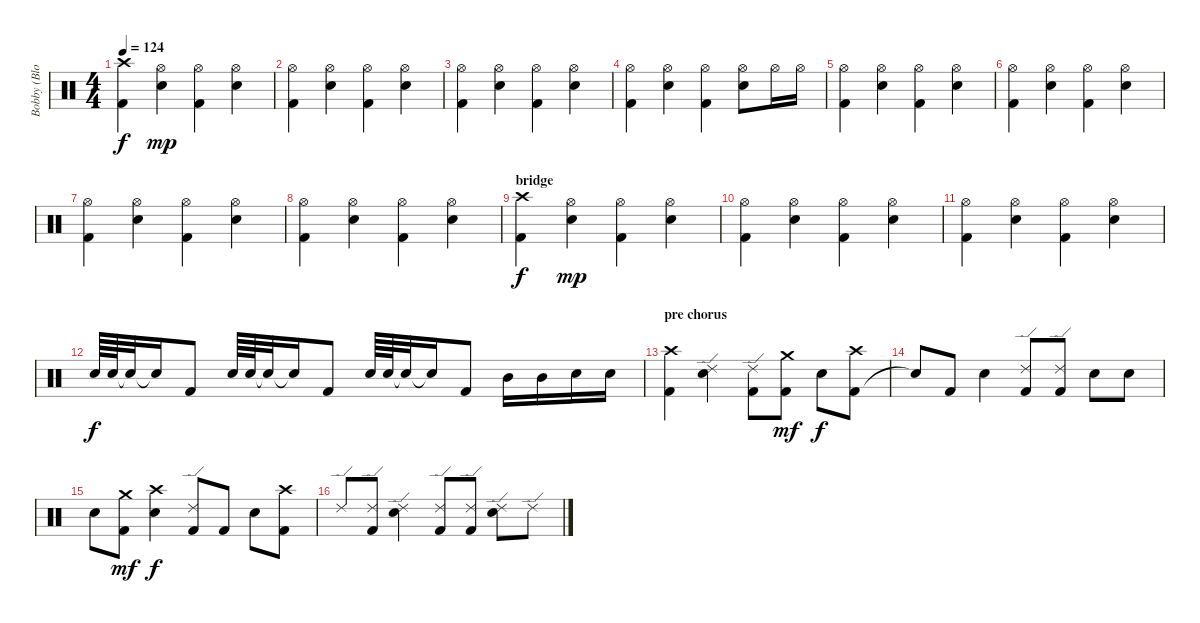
\track ("Bobby (Blotz) Blotzer" "Bobby (Blo") {instrument percussion}
\staff {score}
\articulation defaults
\ts (4 4)
\tempo 124
\clef neutral
\ks c
("Kick (hit) 2" "Crash high (hit)").4{dy f} ("Hi-Hat (open)" "Snare (hit) 2").4{dy mp} ("Kick (hit) 2" "Hi-Hat (open)").4 ("Hi-Hat (open)" "Snare (hit) 2").4 |
("Kick (hit) 2" "Hi-Hat (open)").4 ("Hi-Hat (open)" "Snare (hit) 2").4 ("Kick (hit) 2" "Hi-Hat (open)").4 ("Hi-Hat (open)" "Snare (hit) 2").4 |
("Kick (hit) 2" "Hi-Hat (open)").4 ("Hi-Hat (open)" "Snare (hit) 2").4 ("Kick (hit) 2" "Hi-Hat (open)").4 ("Hi-Hat (open)" "Snare (hit) 2").4 |
("Kick (hit) 2" "Hi-Hat (open)").4 ("Hi-Hat (open)" "Snare (hit) 2").4 ("Kick (hit) 2" "Hi-Hat (open)").4 ("Hi-Hat (open)" "Snare (hit) 2").8 "Hi-Hat (open)".16 "Hi-Hat (open)".16 |
("Kick (hit) 2" "Hi-Hat (open)").4 ("Hi-Hat (open)" "Snare (hit) 2").4 ("Kick (hit) 2" "Hi-Hat (open)").4 ("Hi-Hat (open)" "Snare (hit) 2").4 |
("Kick (hit) 2" "Hi-Hat (open)").4 ("Hi-Hat (open)" "Snare (hit) 2").4 ("Kick (hit) 2" "Hi-Hat (open)").4 ("Hi-Hat (open)" "Snare (hit) 2").4 |
("Kick (hit) 2" "Hi-Hat (open)").4 ("Hi-Hat (open)" "Snare (hit) 2").4 ("Kick (hit) 2" "Hi-Hat (open)").4 ("Hi-Hat (open)" "Snare (hit) 2").4 |
("Kick (hit) 2" "Hi-Hat (open)").4 ("Hi-Hat (open)" "Snare (hit) 2").4 ("Kick (hit) 2" "Hi-Hat (open)").4 ("Hi-Hat (open)" "Snare (hit) 2").4 |
\section ("" "bridge")
("Kick (hit) 2" "Crash high (hit)").4{dy f} ("Hi-Hat (open)" "Snare (hit) 2").4{dy mp} ("Kick (hit) 2" "Hi-Hat (open)").4 ("Hi-Hat (open)" "Snare (hit) 2").4 |
("Kick (hit) 2" "Hi-Hat (open)").4 ("Hi-Hat (open)" "Snare (hit) 2").4 ("Kick (hit) 2" "Hi-Hat (open)").4 ("Hi-Hat (open)" "Snare (hit) 2").4 |
("Kick (hit) 2" "Hi-Hat (open)").4 ("Hi-Hat (open)" "Snare (hit) 2").4 ("Kick (hit) 2" "Hi-Hat (open)").4 ("Hi-Hat (open)" "Snare (hit) 2").4 |
"Snare (hit) 2".64{dy f} "Snare (hit) 2".64 "Snare (hit)"{t}.32 "Snare (hit)"{t}.16 "Kick (hit) 2".8 "Snare (hit) 2".64 "Snare (hit) 2".64 "Snare (hit)"{t}.32 "Snare (hit)"{t}.16 "Kick (hit) 2".8 "Snare (hit) 2".64 "Snare (hit) 2".64 "Snare (hit)"{t}.32 "Snare (hit)"{t}.16 "Kick (hit) 2".8 "Mid Tom (hit)".16 "Mid Tom (hit)".16 "Snare (hit) 2".16 "Snare (hit) 2".16 |
\section ("" "pre chorus")
("Kick (hit) 2" "Crash high (hit)").4 ("Ride (edge) 2" "Snare (hit) 2").4 ("Kick (hit) 2" "Ride (edge) 2").8 ("Kick (hit) 2" "Crash medium (hit)").8{dy mf} "Snare (hit) 2".8{dy f} ("Kick (hit) 2" "Crash high (hit)").8 |
"Snare (hit)"{t}.8 "Kick (hit) 2".8 "Snare (hit) 2".4 ("Kick (hit) 2" "Ride (edge) 2").8 ("Kick (hit) 2" "Ride (edge) 2").8 "Snare (hit) 2".8 "Snare (hit) 2".8 |
"Snare (hit) 2".8 ("Kick (hit) 2" "Crash medium (hit)").8{dy mf} ("Crash high (hit)" "Snare (hit) 2").4{dy f} ("Kick (hit) 2" "Ride (edge) 2").8 "Kick (hit) 2".8 "Snare (hit) 2".8 ("Kick (hit) 2" "Crash high (hit)").8 |
"Ride (edge) 2".8 ("Kick (hit) 2" "Ride (edge) 2").8 ("Ride (edge) 2" "Snare (hit) 2").4 ("Kick (hit) 2" "Ride (edge) 2").8 ("Kick (hit) 2" "Ride (edge) 2").8 ("Ride (edge) 2" "Snare (hit) 2").8 "Ride (edge) 2".8
